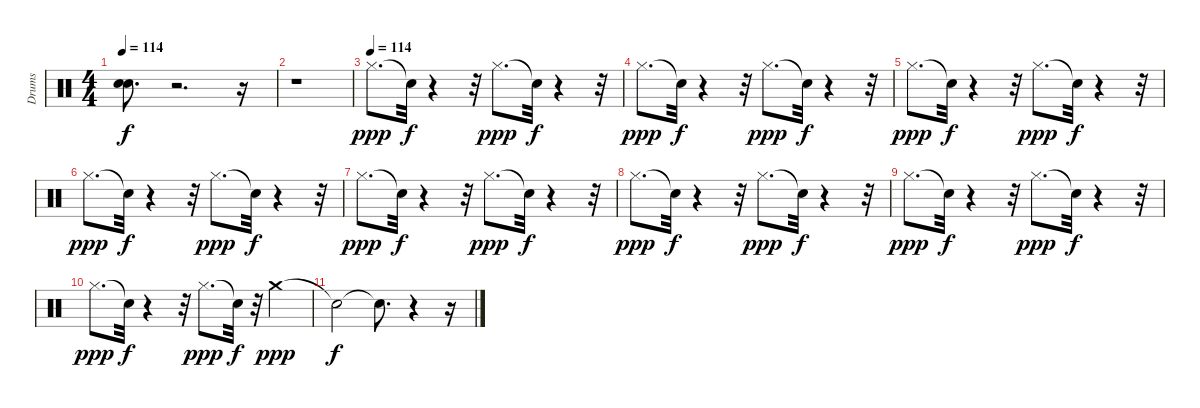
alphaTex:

\track ("Drums" "Drums") {instrument percussion}
\staff {score}
\articulation defaults
\ts (4 4)
\tempo 114
\clef neutral
\ks c
("Snare (hit)"{t} "Snare (hit)"{t}).8{d dy f} r.2{d} r.16 |
r.1 |
\tempo (114)
"Hi-Hat (closed)".8{d dy ppp} "Snare (hit)"{t}.32{dy f} r.4 r.32 "Hi-Hat (closed)".8{d dy ppp} "Snare (hit)"{t}.32{dy f} r.4 r.32 |
"Hi-Hat (closed)".8{d dy ppp} "Snare (hit)"{t}.32{dy f} r.4 r.32 "Hi-Hat (closed)".8{d dy ppp} "Snare (hit)"{t}.32{dy f} r.4 r.32 |
"Hi-Hat (closed)".8{d dy ppp} "Snare (hit)"{t}.32{dy f} r.4 r.32 "Hi-Hat (closed)".8{d dy ppp} "Snare (hit)"{t}.32{dy f} r.4 r.32 |
"Hi-Hat (closed)".8{d dy ppp} "Snare (hit)"{t}.32{dy f} r.4 r.32 "Hi-Hat (closed)".8{d dy ppp} "Snare (hit)"{t}.32{dy f} r.4 r.32 |
"Hi-Hat (closed)".8{d dy ppp} "Snare (hit)"{t}.32{dy f} r.4 r.32 "Hi-Hat (closed)".8{d dy ppp} "Snare (hit)"{t}.32{dy f} r.4 r.32 |
"Hi-Hat (closed)".8{d dy ppp} "Snare (hit)"{t}.32{dy f} r.4 r.32 "Hi-Hat (closed)".8{d dy ppp} "Snare (hit)"{t}.32{dy f} r.4 r.32 |
"Hi-Hat (closed)".8{d dy ppp} "Snare (hit)"{t}.32{dy f} r.4 r.32 "Hi-Hat (closed)".8{d dy ppp} "Snare (hit)"{t}.32{dy f} r.4 r.32 |
"Hi-Hat (closed)".8{d dy ppp} "Snare (hit)"{t}.32{dy f} r.4 r.32 "Hi-Hat (closed)".8{d dy ppp} "Snare (hit)"{t}.32{dy f} r.32 "Crash medium (hit)".4{dy ppp} |
"Snare (hit)"{t}.2{dy f} "Snare (hit)"{t}.8{d} r.4 r.16
